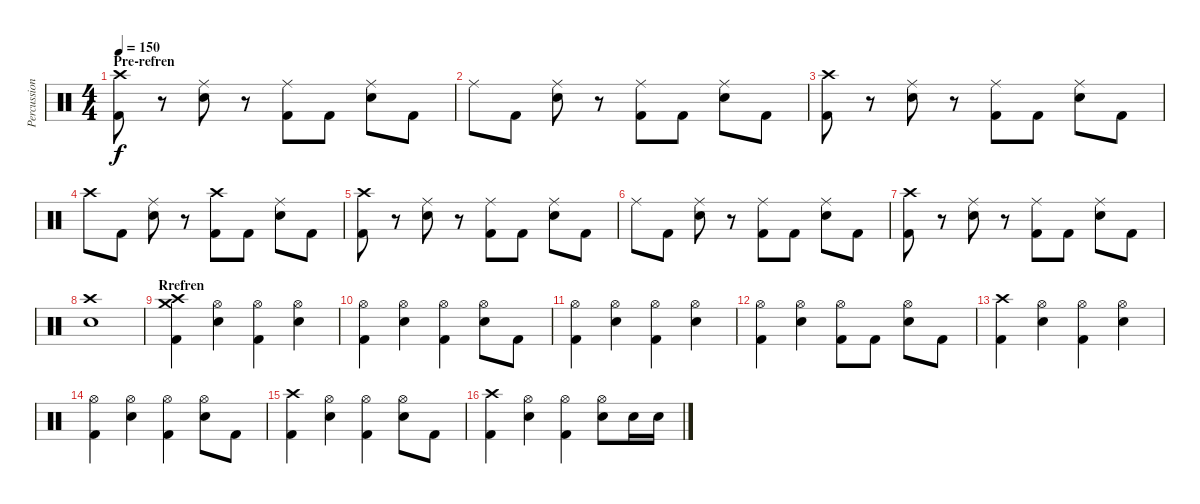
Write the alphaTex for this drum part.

\track ("Percussion" "Percussion") {instrument percussion}
\staff {score}
\articulation defaults
\ts (4 4)
\section ("" "Pre-refren")
\tempo 150
\clef neutral
\ks c
("Kick (hit) 2" "Crash high (hit)").8{dy f} r.8 ("Electric Snare (hit)" "Ride (middle)").8 r.8 ("Kick (hit) 2" "Ride (middle)").8 "Kick (hit) 2".8 ("Electric Snare (hit)" "Ride (middle)").8 "Kick (hit) 2".8 |
"Ride (middle)".8 "Kick (hit) 2".8 ("Electric Snare (hit)" "Ride (middle)").8 r.8 ("Kick (hit) 2" "Ride (middle)").8 "Kick (hit) 2".8 ("Electric Snare (hit)" "Ride (middle)").8 "Kick (hit) 2".8 |
("Kick (hit) 2" "Crash high (hit)").8 r.8 ("Electric Snare (hit)" "Ride (middle)").8 r.8 ("Kick (hit) 2" "Ride (middle)").8 "Kick (hit) 2".8 ("Electric Snare (hit)" "Ride (middle)").8 "Kick (hit) 2".8 |
"Crash high (hit)".8 "Kick (hit) 2".8 ("Electric Snare (hit)" "Ride (middle)").8 r.8 ("Kick (hit) 2" "Crash high (hit)").8 "Kick (hit) 2".8 ("Electric Snare (hit)" "Ride (middle)").8 "Kick (hit) 2".8 |
("Kick (hit) 2" "Crash high (hit)").8 r.8 ("Electric Snare (hit)" "Ride (middle)").8 r.8 ("Kick (hit) 2" "Ride (middle)").8 "Kick (hit) 2".8 ("Electric Snare (hit)" "Ride (middle)").8 "Kick (hit) 2".8 |
"Ride (middle)".8 "Kick (hit) 2".8 ("Electric Snare (hit)" "Ride (middle)").8 r.8 ("Kick (hit) 2" "Ride (middle)").8 "Kick (hit) 2".8 ("Electric Snare (hit)" "Ride (middle)").8 "Kick (hit) 2".8 |
("Kick (hit) 2" "Crash high (hit)").8 r.8 ("Electric Snare (hit)" "Ride (middle)").8 r.8 ("Kick (hit) 2" "Ride (middle)").8 "Kick (hit) 2".8 ("Electric Snare (hit)" "Ride (middle)").8 "Kick (hit) 2".8 |
("Electric Snare (hit)" "Crash high (hit)").1 |
\section ("" "Rrefren")
("Crash high (hit)" "Kick (hit) 2" "Crash medium (hit)").4 ("Hi-Hat (open)" "Electric Snare (hit)").4 ("Hi-Hat (open)" "Kick (hit) 2").4 ("Hi-Hat (open)" "Electric Snare (hit)").4 |
("Hi-Hat (open)" "Kick (hit) 2").4 ("Hi-Hat (open)" "Electric Snare (hit)").4 ("Hi-Hat (open)" "Kick (hit) 2").4 ("Hi-Hat (open)" "Electric Snare (hit)").8 "Kick (hit) 2".8 |
("Hi-Hat (open)" "Kick (hit) 2").4 ("Hi-Hat (open)" "Electric Snare (hit)").4 ("Hi-Hat (open)" "Kick (hit) 2").4 ("Hi-Hat (open)" "Electric Snare (hit)").4 |
("Hi-Hat (open)" "Kick (hit) 2").4 ("Hi-Hat (open)" "Electric Snare (hit)").4 ("Hi-Hat (open)" "Kick (hit) 2").8 "Kick (hit) 2".8 ("Hi-Hat (open)" "Electric Snare (hit)").8 "Kick (hit) 2".8 |
("Crash high (hit)" "Kick (hit) 2").4 ("Hi-Hat (open)" "Electric Snare (hit)").4 ("Hi-Hat (open)" "Kick (hit) 2").4 ("Hi-Hat (open)" "Electric Snare (hit)").4 |
("Hi-Hat (open)" "Kick (hit) 2").4 ("Hi-Hat (open)" "Electric Snare (hit)").4 ("Hi-Hat (open)" "Kick (hit) 2").4 ("Hi-Hat (open)" "Electric Snare (hit)").8 "Kick (hit) 2".8 |
("Crash high (hit)" "Kick (hit) 2").4 ("Hi-Hat (open)" "Electric Snare (hit)").4 ("Hi-Hat (open)" "Kick (hit) 2").4 ("Hi-Hat (open)" "Electric Snare (hit)").8 "Kick (hit) 2".8 |
("Crash high (hit)" "Kick (hit) 2").4 ("Hi-Hat (open)" "Electric Snare (hit)").4 ("Hi-Hat (open)" "Kick (hit) 2").4 ("Electric Snare (hit)" "Hi-Hat (open)").8 "Electric Snare (hit)".16 "Electric Snare (hit)".16
